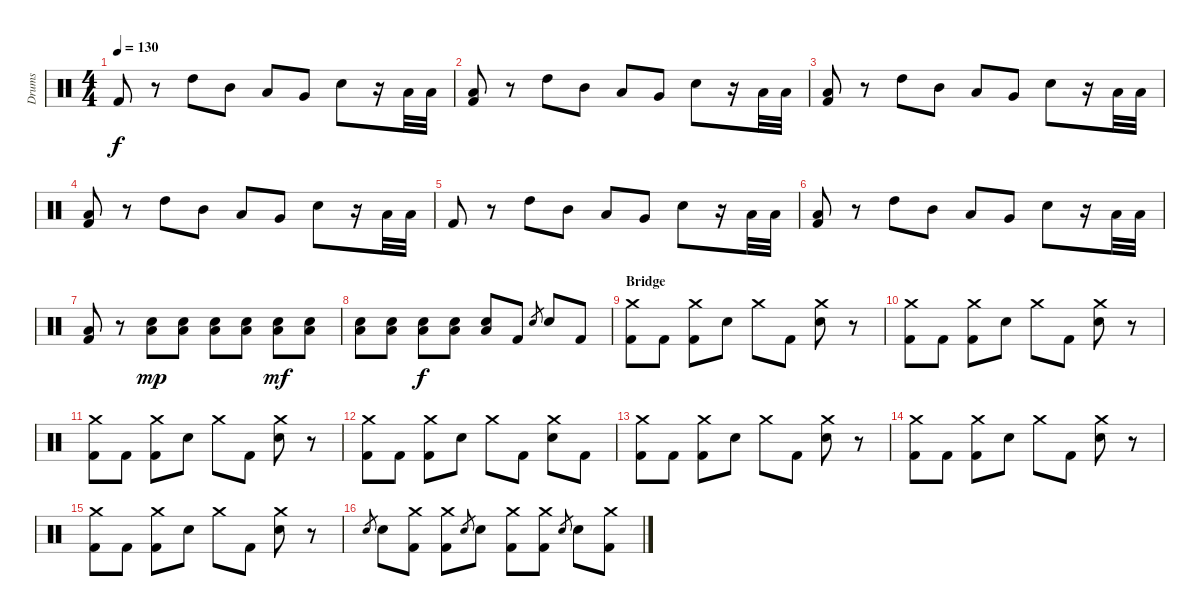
\track ("Drums" "Drums") {instrument percussion}
\staff {score}
\articulation defaults
\ts (4 4)
\tempo 130
\clef neutral
\ks c "Kick (hit) 2".8{dy f}
r.8 "High Tom (hit)".8 "Mid Tom (hit)".8 "Low Tom (hit)".8 "Very Low Tom (hit)".8 "Electric Snare (hit)".8 r.16 "Low Floor Tom (hit)".32 "Low Floor Tom (hit)".32 |
("Low Floor Tom (hit)" "Kick (hit) 2").8 r.8 "High Tom (hit)".8 "Mid Tom (hit)".8 "Low Tom (hit)".8 "Very Low Tom (hit)".8 "Electric Snare (hit)".8 r.16 "Low Floor Tom (hit)".32 "Low Floor Tom (hit)".32 |
("Low Floor Tom (hit)" "Kick (hit) 2").8 r.8 "High Tom (hit)".8 "Mid Tom (hit)".8 "Low Tom (hit)".8 "Very Low Tom (hit)".8 "Electric Snare (hit)".8 r.16 "Low Floor Tom (hit)".32 "Low Floor Tom (hit)".32 |
("Low Floor Tom (hit)" "Kick (hit) 2").8 r.8 "High Tom (hit)".8 "Mid Tom (hit)".8 "Low Tom (hit)".8 "Very Low Tom (hit)".8 "Electric Snare (hit)".8 r.16 "Low Floor Tom (hit)".32 "Low Floor Tom (hit)".32 |
"Kick (hit) 2".8 r.8 "High Tom (hit)".8 "Mid Tom (hit)".8 "Low Tom (hit)".8 "Very Low Tom (hit)".8 "Electric Snare (hit)".8 r.16 "Low Floor Tom (hit)".32 "Low Floor Tom (hit)".32 |
("Low Floor Tom (hit)" "Kick (hit) 2").8 r.8 "High Tom (hit)".8 "Mid Tom (hit)".8 "Low Tom (hit)".8 "Very Low Tom (hit)".8 "Electric Snare (hit)".8 r.16 "Low Floor Tom (hit)".32 "Low Floor Tom (hit)".32 |
("Low Floor Tom (hit)" "Kick (hit) 2").8 r.8 ("Electric Snare (hit)" "Low Floor Tom (hit)").8{dy mp} ("Electric Snare (hit)" "Low Floor Tom (hit)").8 ("Electric Snare (hit)" "Low Floor Tom (hit)").8 ("Electric Snare (hit)" "Low Floor Tom (hit)").8 ("Electric Snare (hit)" "Low Floor Tom (hit)").8{dy mf} ("Electric Snare (hit)" "Low Floor Tom (hit)").8 |
("Electric Snare (hit)" "Low Floor Tom (hit)").8 ("Electric Snare (hit)" "Low Floor Tom (hit)").8 ("Electric Snare (hit)" "Low Floor Tom (hit)").8{dy f} ("Electric Snare (hit)" "Low Floor Tom (hit)").8 ("Electric Snare (hit)" "Low Floor Tom (hit)").8 "Kick (hit) 2".8 "Electric Snare (hit)".8{gr} "Electric Snare (hit)".8 "Kick (hit) 2".8 |
\section ("" "Bridge")
("Crash medium (hit)" "Kick (hit) 2").8 "Kick (hit) 2".8 ("Crash medium (hit)" "Kick (hit) 2").8 "Electric Snare (hit)".8 "Crash medium (hit)".8 "Kick (hit) 2".8 ("Crash medium (hit)" "Electric Snare (hit)").8 r.8 |
("Crash medium (hit)" "Kick (hit) 2").8 "Kick (hit) 2".8 ("Crash medium (hit)" "Kick (hit) 2").8 "Electric Snare (hit)".8 "Crash medium (hit)".8 "Kick (hit) 2".8 ("Crash medium (hit)" "Electric Snare (hit)").8 r.8 |
("Crash medium (hit)" "Kick (hit) 2").8 "Kick (hit) 2".8 ("Crash medium (hit)" "Kick (hit) 2").8 "Electric Snare (hit)".8 "Crash medium (hit)".8 "Kick (hit) 2".8 ("Crash medium (hit)" "Electric Snare (hit)").8 r.8 |
("Crash medium (hit)" "Kick (hit) 2").8 "Kick (hit) 2".8 ("Crash medium (hit)" "Kick (hit) 2").8 "Electric Snare (hit)".8 "Crash medium (hit)".8 "Kick (hit) 2".8 ("Crash medium (hit)" "Electric Snare (hit)").8 "Kick (hit) 2".8 |
("Crash medium (hit)" "Kick (hit) 2").8 "Kick (hit) 2".8 ("Crash medium (hit)" "Kick (hit) 2").8 "Electric Snare (hit)".8 "Crash medium (hit)".8 "Kick (hit) 2".8 ("Crash medium (hit)" "Electric Snare (hit)").8 r.8 |
("Crash medium (hit)" "Kick (hit) 2").8 "Kick (hit) 2".8 ("Crash medium (hit)" "Kick (hit) 2").8 "Electric Snare (hit)".8 "Crash medium (hit)".8 "Kick (hit) 2".8 ("Crash medium (hit)" "Electric Snare (hit)").8 r.8 |
("Crash medium (hit)" "Kick (hit) 2").8 "Kick (hit) 2".8 ("Crash medium (hit)" "Kick (hit) 2").8 "Electric Snare (hit)".8 "Crash medium (hit)".8 "Kick (hit) 2".8 ("Crash medium (hit)" "Electric Snare (hit)").8 r.8 |
"Electric Snare (hit)".8{gr} "Electric Snare (hit)".8 ("Crash medium (hit)" "Kick (hit) 2").8 ("Crash medium (hit)" "Kick (hit) 2").8 "Electric Snare (hit)".8{gr} "Electric Snare (hit)".8 ("Crash medium (hit)" "Kick (hit) 2").8 ("Crash medium (hit)" "Kick (hit) 2").8 "Electric Snare (hit)".8{gr} "Electric Snare (hit)".8 ("Crash medium (hit)" "Kick (hit) 2").8
